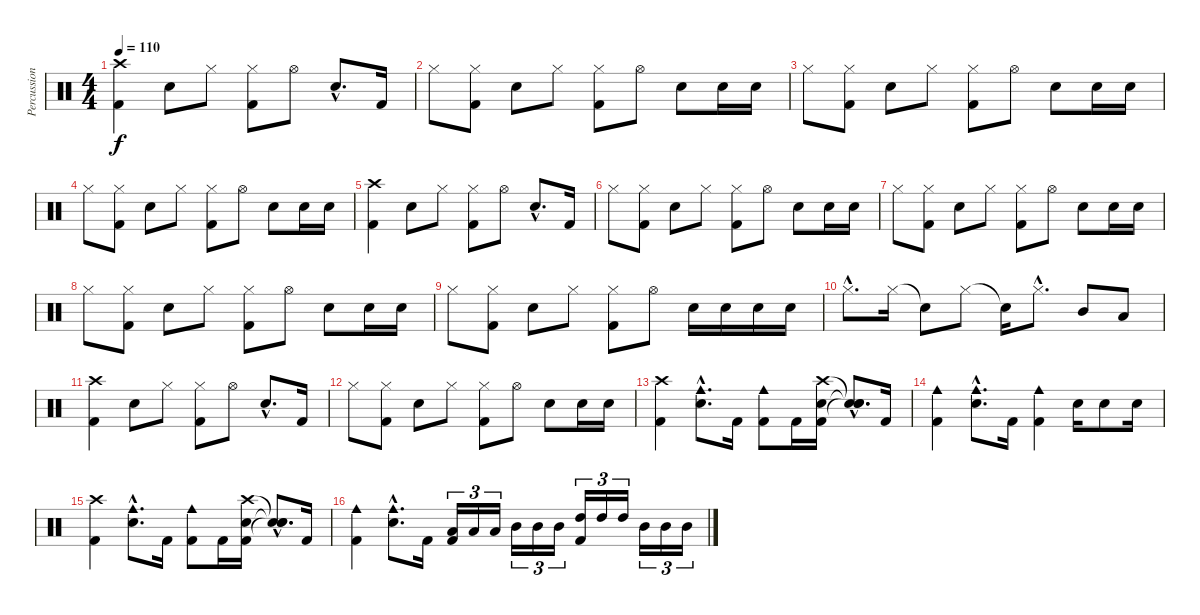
\track ("Percussions" "Percussion") {instrument percussion}
\staff {score}
\articulation defaults
\ts (4 4)
\tempo 110
\clef neutral
\ks c
("Crash high (hit)" "Kick (hit) 2").4{dy f} "Snare (hit) 2".8 "Hi-Hat (closed)".8 ("Kick (hit) 2" "Hi-Hat (closed)").8 "Hi-Hat (open)".8 "Snare (hit) 2"{hac}.8{d} "Kick (hit) 2".16 |
"Hi-Hat (closed)".8 ("Hi-Hat (closed)" "Kick (hit) 2").8 "Snare (hit) 2".8 "Hi-Hat (closed)".8 ("Kick (hit) 2" "Hi-Hat (closed)").8 "Hi-Hat (open)".8 "Snare (hit) 2".8 "Snare (hit) 2".16 "Snare (hit) 2".16 |
"Hi-Hat (closed)".8 ("Hi-Hat (closed)" "Kick (hit) 2").8 "Snare (hit) 2".8 "Hi-Hat (closed)".8 ("Kick (hit) 2" "Hi-Hat (closed)").8 "Hi-Hat (open)".8 "Snare (hit) 2".8 "Snare (hit) 2".16 "Snare (hit) 2".16 |
"Hi-Hat (closed)".8 ("Hi-Hat (closed)" "Kick (hit) 2").8 "Snare (hit) 2".8 "Hi-Hat (closed)".8 ("Kick (hit) 2" "Hi-Hat (closed)").8 "Hi-Hat (open)".8 "Snare (hit) 2".8 "Snare (hit) 2".16 "Snare (hit) 2".16 |
("Crash high (hit)" "Kick (hit) 2").4 "Snare (hit) 2".8 "Hi-Hat (closed)".8 ("Kick (hit) 2" "Hi-Hat (closed)").8 "Hi-Hat (open)".8 "Snare (hit) 2"{hac}.8{d} "Kick (hit) 2".16 |
"Hi-Hat (closed)".8 ("Hi-Hat (closed)" "Kick (hit) 2").8 "Snare (hit) 2".8 "Hi-Hat (closed)".8 ("Kick (hit) 2" "Hi-Hat (closed)").8 "Hi-Hat (open)".8 "Snare (hit) 2".8 "Snare (hit) 2".16 "Snare (hit) 2".16 |
"Hi-Hat (closed)".8 ("Hi-Hat (closed)" "Kick (hit) 2").8 "Snare (hit) 2".8 "Hi-Hat (closed)".8 ("Kick (hit) 2" "Hi-Hat (closed)").8 "Hi-Hat (open)".8 "Snare (hit) 2".8 "Snare (hit) 2".16 "Snare (hit) 2".16 |
"Hi-Hat (closed)".8 ("Hi-Hat (closed)" "Kick (hit) 2").8 "Snare (hit) 2".8 "Hi-Hat (closed)".8 ("Kick (hit) 2" "Hi-Hat (closed)").8 "Hi-Hat (open)".8 "Snare (hit) 2".8 "Snare (hit) 2".16 "Snare (hit) 2".16 |
"Hi-Hat (closed)".8 ("Hi-Hat (closed)" "Kick (hit) 2").8 "Snare (hit) 2".8 "Hi-Hat (closed)".8 ("Kick (hit) 2" "Hi-Hat (closed)").8 "Hi-Hat (open)".8 "Snare (hit) 2".16 "Snare (hit) 2".16 "Snare (hit) 2".16 "Snare (hit) 2".16 |
"Hi-Hat (closed)"{hac}.8{d} "Hi-Hat (closed)".16 "Snare (hit)"{t}.8 "Hi-Hat (closed)".8 "Snare (hit)"{t}.16 "Hi-Hat (closed)"{hac}.8{d} "Mid Tom (hit)".8 "Low Tom (hit)".8 |
("Crash high (hit)" "Kick (hit) 2").4 "Snare (hit) 2".8 "Hi-Hat (closed)".8 ("Kick (hit) 2" "Hi-Hat (closed)").8 "Hi-Hat (open)".8 "Snare (hit) 2"{hac}.8{d} "Kick (hit) 2".16 |
"Hi-Hat (closed)".8 ("Hi-Hat (closed)" "Kick (hit) 2").8 "Snare (hit) 2".8 "Hi-Hat (closed)".8 ("Kick (hit) 2" "Hi-Hat (closed)").8 "Hi-Hat (open)".8 "Snare (hit) 2".8 "Snare (hit) 2".16 "Snare (hit) 2".16 |
("Kick (hit) 2" "Crash high (hit)").4 ("Cowbell medium (hit)"{hac} "Snare (hit) 2"{hac}).8{d} "Kick (hit) 2".16 ("Cowbell medium (hit)" "Kick (hit) 2").8 "Kick (hit) 2".16 ("Kick (hit) 2" "Crash high (hit)" "Snare (hit) 2").16 ("Snare (hit)"{hac t} "Snare (hit)"{hac t} "Snare (hit)"{hac t}).8{d} "Kick (hit) 2".16 |
("Cowbell medium (hit)" "Kick (hit) 2").4 ("Snare (hit) 2"{hac} "Cowbell medium (hit)"{hac}).8{d} "Kick (hit) 2".16 ("Cowbell medium (hit)" "Kick (hit) 2").4 "Snare (hit) 2".16 "Snare (hit) 2".8 "Snare (hit) 2".16 |
("Crash high (hit)" "Kick (hit) 2").4 ("Snare (hit) 2"{hac} "Cowbell medium (hit)"{hac}).8{d} "Kick (hit) 2".16 ("Cowbell medium (hit)" "Kick (hit) 2").8 "Kick (hit) 2".16 ("Kick (hit) 2" "Crash high (hit)" "Snare (hit) 2").16 ("Snare (hit)"{hac t} "Snare (hit)"{hac t} "Snare (hit)"{hac t}).8{d} "Kick (hit) 2".16 |
("Cowbell medium (hit)" "Kick (hit) 2").4 ("Cowbell medium (hit)"{hac} "Snare (hit) 2"{hac}).8{d} "Kick (hit) 2".16 ("Kick (hit) 2" "Low Tom (hit)").16{tu (3 2)} "Low Tom (hit)".16{tu (3 2)} "Low Tom (hit)".16{tu (3 2)} "Mid Tom (hit)".16{tu (3 2)} "Mid Tom (hit)".16{tu (3 2)} "Mid Tom (hit)".16{tu (3 2)} ("Kick (hit) 2" "High Tom (hit)").16{tu (3 2)} "High Tom (hit)".16{tu (3 2)} "High Tom (hit)".16{tu (3 2)} "Mid Tom (hit)".16{tu (3 2)} "Mid Tom (hit)".16{tu (3 2)} "Mid Tom (hit)".16{tu (3 2)}
